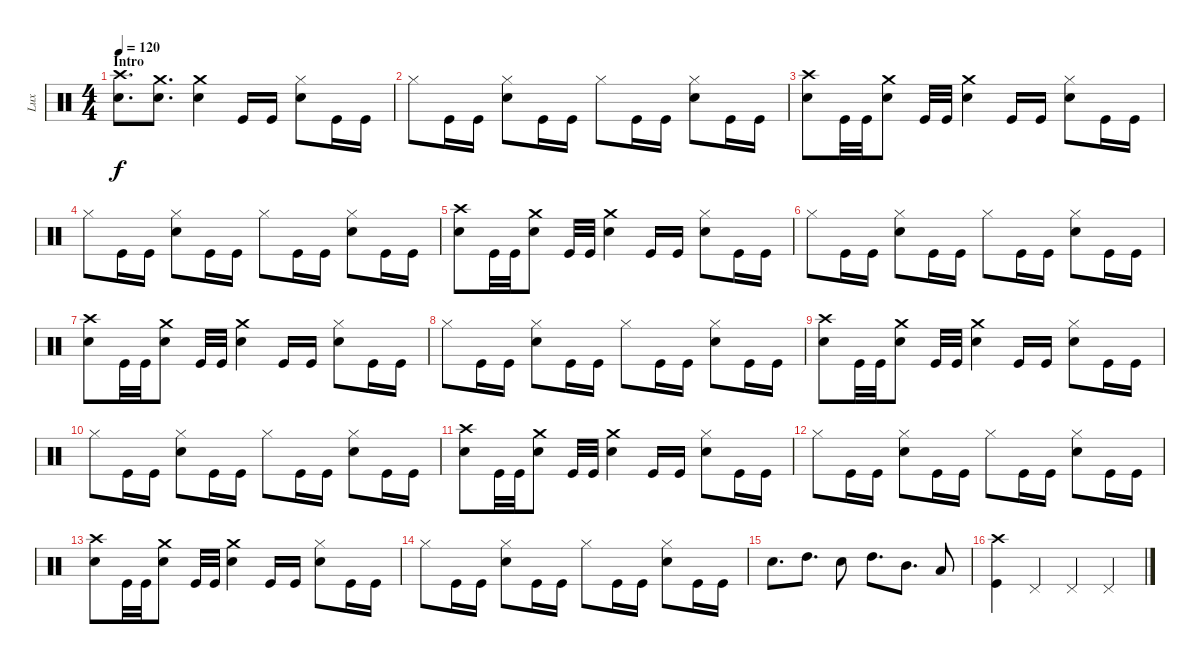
\track ("Lux" "Lux") {mute instrument percussion}
\staff {score}
\articulation defaults
\ts (4 4)
\section ("" "Intro")
\tempo 120
\clef neutral
\ks c
("Crash high (hit)" "Snare (hit) 2").8{d dy f} ("Crash medium (hit)" "Snare (hit) 2").8{d} ("Crash medium (hit)" "Snare (hit) 2").4 "Kick (hit)".16 "Kick (hit)".16 ("Hi-Hat (closed)" "Snare (hit) 2").8 "Kick (hit)".16 "Kick (hit)".16 |
"Hi-Hat (closed)".8 "Kick (hit)".16 "Kick (hit)".16 ("Hi-Hat (closed)" "Snare (hit) 2").8 "Kick (hit)".16 "Kick (hit)".16 "Hi-Hat (closed)".8 "Kick (hit)".16 "Kick (hit)".16 ("Hi-Hat (closed)" "Snare (hit) 2").8 "Kick (hit)".16 "Kick (hit)".16 |
("Crash high (hit)" "Snare (hit) 2").8 "Kick (hit)".32 "Kick (hit)".32 ("Crash medium (hit)" "Snare (hit) 2").8 "Kick (hit)".32 "Kick (hit)".32 ("Crash medium (hit)" "Snare (hit) 2").4 "Kick (hit)".16 "Kick (hit)".16 ("Hi-Hat (closed)" "Snare (hit) 2").8 "Kick (hit)".16 "Kick (hit)".16 |
"Hi-Hat (closed)".8 "Kick (hit)".16 "Kick (hit)".16 ("Hi-Hat (closed)" "Snare (hit) 2").8 "Kick (hit)".16 "Kick (hit)".16 "Hi-Hat (closed)".8 "Kick (hit)".16 "Kick (hit)".16 ("Hi-Hat (closed)" "Snare (hit) 2").8 "Kick (hit)".16 "Kick (hit)".16 |
("Crash high (hit)" "Snare (hit) 2").8 "Kick (hit)".32 "Kick (hit)".32 ("Crash medium (hit)" "Snare (hit) 2").8 "Kick (hit)".32 "Kick (hit)".32 ("Crash medium (hit)" "Snare (hit) 2").4 "Kick (hit)".16 "Kick (hit)".16 ("Hi-Hat (closed)" "Snare (hit) 2").8 "Kick (hit)".16 "Kick (hit)".16 |
"Hi-Hat (closed)".8 "Kick (hit)".16 "Kick (hit)".16 ("Hi-Hat (closed)" "Snare (hit) 2").8 "Kick (hit)".16 "Kick (hit)".16 "Hi-Hat (closed)".8 "Kick (hit)".16 "Kick (hit)".16 ("Hi-Hat (closed)" "Snare (hit) 2").8 "Kick (hit)".16 "Kick (hit)".16 |
("Crash high (hit)" "Snare (hit) 2").8 "Kick (hit)".32 "Kick (hit)".32 ("Crash medium (hit)" "Snare (hit) 2").8 "Kick (hit)".32 "Kick (hit)".32 ("Crash medium (hit)" "Snare (hit) 2").4 "Kick (hit)".16 "Kick (hit)".16 ("Hi-Hat (closed)" "Snare (hit) 2").8 "Kick (hit)".16 "Kick (hit)".16 |
"Hi-Hat (closed)".8 "Kick (hit)".16 "Kick (hit)".16 ("Hi-Hat (closed)" "Snare (hit) 2").8 "Kick (hit)".16 "Kick (hit)".16 "Hi-Hat (closed)".8 "Kick (hit)".16 "Kick (hit)".16 ("Hi-Hat (closed)" "Snare (hit) 2").8 "Kick (hit)".16 "Kick (hit)".16 |
("Crash high (hit)" "Snare (hit) 2").8 "Kick (hit)".32 "Kick (hit)".32 ("Crash medium (hit)" "Snare (hit) 2").8 "Kick (hit)".32 "Kick (hit)".32 ("Crash medium (hit)" "Snare (hit) 2").4 "Kick (hit)".16 "Kick (hit)".16 ("Hi-Hat (closed)" "Snare (hit) 2").8 "Kick (hit)".16 "Kick (hit)".16 |
"Hi-Hat (closed)".8 "Kick (hit)".16 "Kick (hit)".16 ("Hi-Hat (closed)" "Snare (hit) 2").8 "Kick (hit)".16 "Kick (hit)".16 "Hi-Hat (closed)".8 "Kick (hit)".16 "Kick (hit)".16 ("Hi-Hat (closed)" "Snare (hit) 2").8 "Kick (hit)".16 "Kick (hit)".16 |
("Crash high (hit)" "Snare (hit) 2").8 "Kick (hit)".32 "Kick (hit)".32 ("Crash medium (hit)" "Snare (hit) 2").8 "Kick (hit)".32 "Kick (hit)".32 ("Crash medium (hit)" "Snare (hit) 2").4 "Kick (hit)".16 "Kick (hit)".16 ("Hi-Hat (closed)" "Snare (hit) 2").8 "Kick (hit)".16 "Kick (hit)".16 |
"Hi-Hat (closed)".8 "Kick (hit)".16 "Kick (hit)".16 ("Hi-Hat (closed)" "Snare (hit) 2").8 "Kick (hit)".16 "Kick (hit)".16 "Hi-Hat (closed)".8 "Kick (hit)".16 "Kick (hit)".16 ("Hi-Hat (closed)" "Snare (hit) 2").8 "Kick (hit)".16 "Kick (hit)".16 |
("Crash high (hit)" "Snare (hit) 2").8 "Kick (hit)".32 "Kick (hit)".32 ("Crash medium (hit)" "Snare (hit) 2").8 "Kick (hit)".32 "Kick (hit)".32 ("Crash medium (hit)" "Snare (hit) 2").4 "Kick (hit)".16 "Kick (hit)".16 ("Hi-Hat (closed)" "Snare (hit) 2").8 "Kick (hit)".16 "Kick (hit)".16 |
"Hi-Hat (closed)".8 "Kick (hit)".16 "Kick (hit)".16 ("Hi-Hat (closed)" "Snare (hit) 2").8 "Kick (hit)".16 "Kick (hit)".16 "Hi-Hat (closed)".8 "Kick (hit)".16 "Kick (hit)".16 ("Hi-Hat (closed)" "Snare (hit) 2").8 "Kick (hit)".16 "Kick (hit)".16 |
"Snare (hit) 2".8{d} "High Tom (hit)".8{d} "Snare (hit) 2".8 "High Tom (hit)".8{d} "Mid Tom (hit)".8{d} "Low Tom (hit)".8 |
("Crash high (hit)" "Kick (hit)").4 "Pedal Hi-Hat (hit)".4 "Pedal Hi-Hat (hit)".4 "Pedal Hi-Hat (hit)".4
